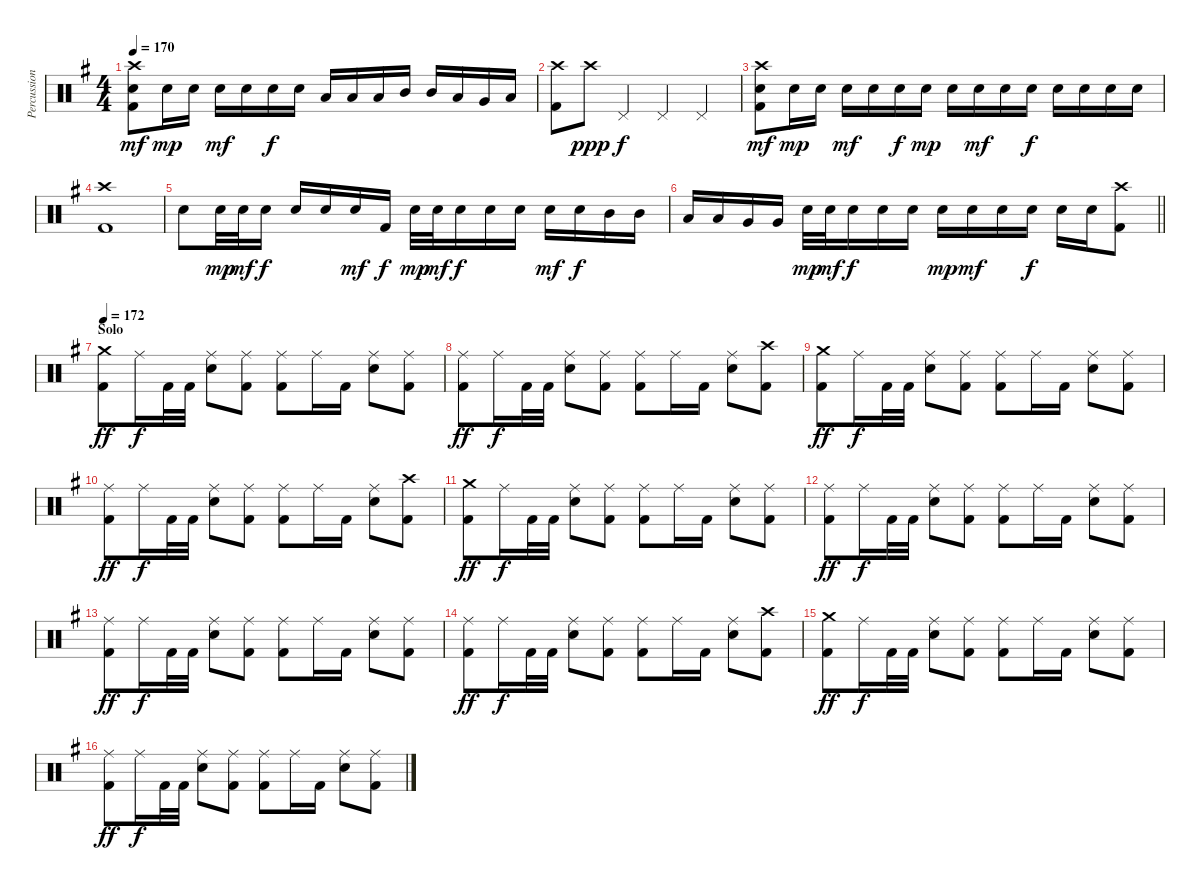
\track ("Percussion" "Percussion") {instrument percussion}
\staff {score}
\articulation defaults
\ts (4 4)
\tempo 170
\clef neutral
\ks g
("Crash high (hit)" "Snare (hit) 2" "Kick (hit) 2").8{dy mf} "Snare (hit) 2".16{dy mp} "Snare (hit) 2".16 "Snare (hit) 2".16{dy mf} "Snare (hit) 2".16 "Snare (hit) 2".16{dy f} "Snare (hit) 2".16 "Low Tom (hit)".16 "Low Tom (hit)".16 "Low Tom (hit)".16 "Mid Tom (hit)".16 "Mid Tom (hit)".16 "Low Tom (hit)".16 "Very Low Tom (hit)".16 "Low Floor Tom (hit)".16 |
("Crash high (hit)" "Kick (hit) 2").8 "Crash high (hit)".8{dy ppp} "Pedal Hi-Hat (hit)".4{dy f} "Pedal Hi-Hat (hit)".4 "Pedal Hi-Hat (hit)".4 |
("Crash high (hit)" "Snare (hit) 2" "Kick (hit) 2").8{dy mf} "Snare (hit) 2".16{dy mp} "Snare (hit) 2".16 "Snare (hit) 2".16{dy mf} "Snare (hit) 2".16 "Snare (hit) 2".16{dy f} "Snare (hit) 2".16{dy mp} "Snare (hit) 2".16 "Snare (hit) 2".16{dy mf} "Snare (hit) 2".16 "Snare (hit) 2".16{dy f} "Snare (hit) 2".16 "Snare (hit) 2".16 "Snare (hit) 2".16 "Snare (hit) 2".16 |
("Crash high (hit)" "Kick (hit) 2").1 |
"Snare (hit) 2".8 "Snare (hit) 2".32{dy mp} "Snare (hit) 2".32{dy mf} "Snare (hit) 2".16{dy f} "Snare (hit) 2".16 "Snare (hit) 2".16 "Snare (hit) 2".16{dy mf} "Kick (hit) 2".16{dy f} "Snare (hit) 2".32{dy mp} "Snare (hit) 2".32{dy mf} "Snare (hit) 2".16{dy f} "Snare (hit) 2".16 "Snare (hit) 2".16 "Snare (hit) 2".16{dy mf} "Snare (hit) 2".16{dy f} "Mid Tom (hit)".16 "Mid Tom (hit)".16 |
\barLineRight lightlight "Low Tom (hit)".16 "Low Tom (hit)".16 "Very Low Tom (hit)".16 "Very Low Tom (hit)".16 "Snare (hit) 2".32{dy mp} "Snare (hit) 2".32{dy mf} "Snare (hit) 2".16{dy f} "Snare (hit) 2".16 "Snare (hit) 2".16 "Snare (hit) 2".16{dy mp} "Snare (hit) 2".16{dy mf} "Snare (hit) 2".16 "Snare (hit) 2".16{dy f} "Snare (hit) 2".16 "Snare (hit) 2".16
("Crash high (hit)" "Kick (hit) 2").8 |
\section ("" "Solo")
\tempo 172
("Crash medium (hit)" "Kick (hit) 2").8{dy ff} "Ride (middle)".16{dy f} "Kick (hit) 2".32 "Kick (hit) 2".32 ("Ride (middle)" "Snare (hit) 2").8 ("Ride (middle)" "Kick (hit) 2").8 ("Ride (middle)" "Kick (hit) 2").8 "Ride (middle)".16 "Kick (hit) 2".16 ("Ride (middle)" "Snare (hit) 2").8 ("Ride (middle)" "Kick (hit) 2").8 |
("Ride (middle)" "Kick (hit) 2").8{dy ff} "Ride (middle)".16{dy f} "Kick (hit) 2".32 "Kick (hit) 2".32 ("Ride (middle)" "Snare (hit) 2").8 ("Ride (middle)" "Kick (hit) 2").8 ("Ride (middle)" "Kick (hit) 2").8 "Ride (middle)".16 "Kick (hit) 2".16 ("Ride (middle)" "Snare (hit) 2").8 ("Crash high (hit)" "Kick (hit) 2").8 |
("Crash medium (hit)" "Kick (hit) 2").8{dy ff} "Ride (middle)".16{dy f} "Kick (hit) 2".32 "Kick (hit) 2".32 ("Ride (middle)" "Snare (hit) 2").8 ("Ride (middle)" "Kick (hit) 2").8 ("Ride (middle)" "Kick (hit) 2").8 "Ride (middle)".16 "Kick (hit) 2".16 ("Ride (middle)" "Snare (hit) 2").8 ("Ride (middle)" "Kick (hit) 2").8 |
("Ride (middle)" "Kick (hit) 2").8{dy ff} "Ride (middle)".16{dy f} "Kick (hit) 2".32 "Kick (hit) 2".32 ("Ride (middle)" "Snare (hit) 2").8 ("Ride (middle)" "Kick (hit) 2").8 ("Ride (middle)" "Kick (hit) 2").8 "Ride (middle)".16 "Kick (hit) 2".16 ("Ride (middle)" "Snare (hit) 2").8 ("Crash high (hit)" "Kick (hit) 2").8 |
("Crash medium (hit)" "Kick (hit) 2").8{dy ff} "Ride (middle)".16{dy f} "Kick (hit) 2".32 "Kick (hit) 2".32 ("Ride (middle)" "Snare (hit) 2").8 ("Ride (middle)" "Kick (hit) 2").8 ("Ride (middle)" "Kick (hit) 2").8 "Ride (middle)".16 "Kick (hit) 2".16 ("Ride (middle)" "Snare (hit) 2").8 ("Ride (middle)" "Kick (hit) 2").8 |
("Ride (middle)" "Kick (hit) 2").8{dy ff} "Ride (middle)".16{dy f} "Kick (hit) 2".32 "Kick (hit) 2".32 ("Ride (middle)" "Snare (hit) 2").8 ("Ride (middle)" "Kick (hit) 2").8 ("Ride (middle)" "Kick (hit) 2").8 "Ride (middle)".16 "Kick (hit) 2".16 ("Ride (middle)" "Snare (hit) 2").8 ("Ride (middle)" "Kick (hit) 2").8 |
("Ride (middle)" "Kick (hit) 2").8{dy ff} "Ride (middle)".16{dy f} "Kick (hit) 2".32 "Kick (hit) 2".32 ("Ride (middle)" "Snare (hit) 2").8 ("Ride (middle)" "Kick (hit) 2").8 ("Ride (middle)" "Kick (hit) 2").8 "Ride (middle)".16 "Kick (hit) 2".16 ("Ride (middle)" "Snare (hit) 2").8 ("Ride (middle)" "Kick (hit) 2").8 |
("Ride (middle)" "Kick (hit) 2").8{dy ff} "Ride (middle)".16{dy f} "Kick (hit) 2".32 "Kick (hit) 2".32 ("Ride (middle)" "Snare (hit) 2").8 ("Ride (middle)" "Kick (hit) 2").8 ("Ride (middle)" "Kick (hit) 2").8 "Ride (middle)".16 "Kick (hit) 2".16 ("Ride (middle)" "Snare (hit) 2").8 ("Crash high (hit)" "Kick (hit) 2").8 |
("Crash medium (hit)" "Kick (hit) 2").8{dy ff} "Ride (middle)".16{dy f} "Kick (hit) 2".32 "Kick (hit) 2".32 ("Ride (middle)" "Snare (hit) 2").8 ("Ride (middle)" "Kick (hit) 2").8 ("Ride (middle)" "Kick (hit) 2").8 "Ride (middle)".16 "Kick (hit) 2".16 ("Ride (middle)" "Snare (hit) 2").8 ("Ride (middle)" "Kick (hit) 2").8 |
("Ride (middle)" "Kick (hit) 2").8{dy ff} "Ride (middle)".16{dy f} "Kick (hit) 2".32 "Kick (hit) 2".32 ("Ride (middle)" "Snare (hit) 2").8 ("Ride (middle)" "Kick (hit) 2").8 ("Ride (middle)" "Kick (hit) 2").8 "Ride (middle)".16 "Kick (hit) 2".16 ("Ride (middle)" "Snare (hit) 2").8 ("Ride (middle)" "Kick (hit) 2").8
